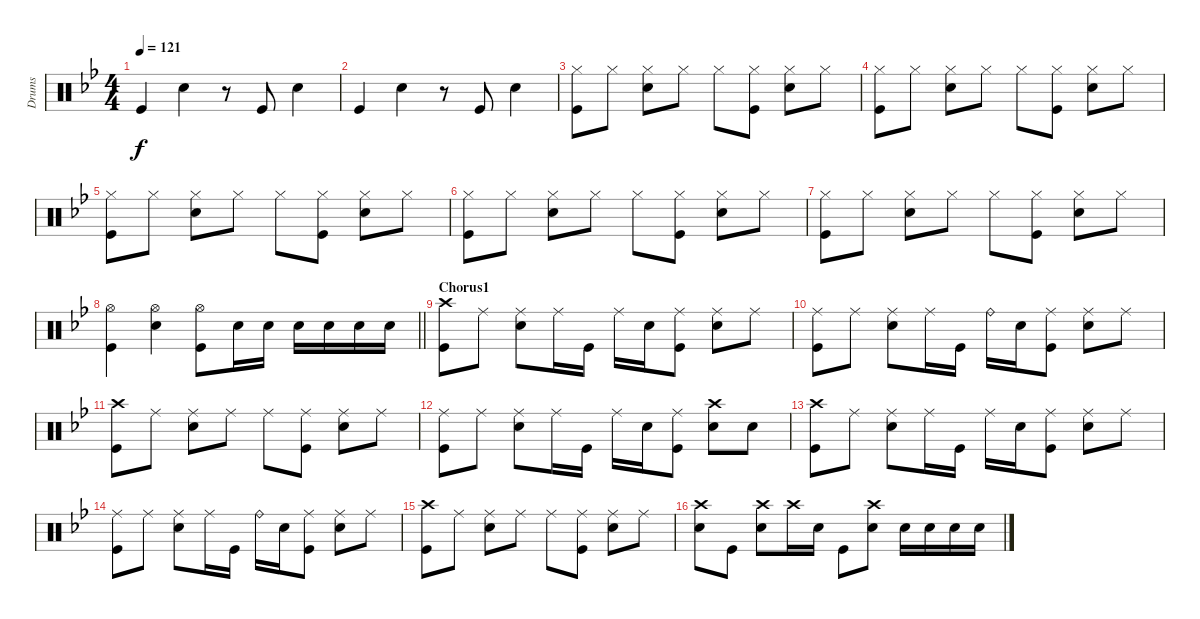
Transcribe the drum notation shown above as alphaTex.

\track ("Drums" "Drums") {instrument percussion}
\staff {score}
\articulation defaults
\ts (4 4)
\tempo 121
\clef neutral
\ks bb "Kick (hit)".4{dy f} "Snare (hit) 2".4
r.8 "Kick (hit)".8 "Snare (hit) 2".4 |
"Kick (hit)".4 "Snare (hit) 2".4 r.8 "Kick (hit)".8 "Snare (hit) 2".4 |
("Hi-Hat (closed)" "Kick (hit)").8 "Hi-Hat (closed)".8 ("Hi-Hat (closed)" "Snare (hit) 2").8 "Hi-Hat (closed)".8 "Hi-Hat (closed)".8 ("Hi-Hat (closed)" "Kick (hit)").8 ("Hi-Hat (closed)" "Snare (hit) 2").8 "Hi-Hat (closed)".8 |
("Hi-Hat (closed)" "Kick (hit)").8 "Hi-Hat (closed)".8 ("Hi-Hat (closed)" "Snare (hit) 2").8 "Hi-Hat (closed)".8 "Hi-Hat (closed)".8 ("Hi-Hat (closed)" "Kick (hit)").8 ("Hi-Hat (closed)" "Snare (hit) 2").8 "Hi-Hat (closed)".8 |
("Hi-Hat (closed)" "Kick (hit)").8 "Hi-Hat (closed)".8 ("Hi-Hat (closed)" "Snare (hit) 2").8 "Hi-Hat (closed)".8 "Hi-Hat (closed)".8 ("Hi-Hat (closed)" "Kick (hit)").8 ("Hi-Hat (closed)" "Snare (hit) 2").8 "Hi-Hat (closed)".8 |
("Hi-Hat (closed)" "Kick (hit)").8 "Hi-Hat (closed)".8 ("Hi-Hat (closed)" "Snare (hit) 2").8 "Hi-Hat (closed)".8 "Hi-Hat (closed)".8 ("Hi-Hat (closed)" "Kick (hit)").8 ("Hi-Hat (closed)" "Snare (hit) 2").8 "Hi-Hat (closed)".8 |
("Hi-Hat (closed)" "Kick (hit)").8 "Hi-Hat (closed)".8 ("Hi-Hat (closed)" "Snare (hit) 2").8 "Hi-Hat (closed)".8 "Hi-Hat (closed)".8 ("Hi-Hat (closed)" "Kick (hit)").8 ("Hi-Hat (closed)" "Snare (hit) 2").8 "Hi-Hat (closed)".8 |
\barLineRight lightlight
("Hi-Hat (open)" "Kick (hit)").4 ("Hi-Hat (open)" "Snare (hit) 2").4 ("Hi-Hat (open)" "Kick (hit)").8 "Snare (hit) 2".16 "Snare (hit) 2".16 "Snare (hit) 2".16 "Snare (hit) 2".16 "Snare (hit) 2".16 "Snare (hit) 2".16 |
\section ("" "Chorus1")
("Crash high (hit)" "Kick (hit)").8 "Ride (middle)".8 ("Ride (middle)" "Snare (hit) 2").8 "Ride (middle)".16 "Kick (hit)".16 "Ride (middle)".16 "Snare (hit) 2".16 ("Ride (middle)" "Kick (hit)").8 ("Ride (middle)" "Snare (hit) 2").8 "Ride (middle)".8 |
("Ride (middle)" "Kick (hit)").8 "Ride (middle)".8 ("Ride (middle)" "Snare (hit) 2").8 "Ride (middle)".16 "Kick (hit)".16 "Ride (bell)".16 "Snare (hit) 2".16 ("Ride (middle)" "Kick (hit)").8 ("Ride (middle)" "Snare (hit) 2").8 "Ride (middle)".8 |
("Crash high (hit)" "Kick (hit)").8 "Ride (middle)".8 ("Ride (middle)" "Snare (hit) 2").8 "Ride (middle)".8 "Ride (middle)".8 ("Kick (hit)" "Ride (middle)").8 ("Snare (hit) 2" "Ride (middle)").8 "Ride (middle)".8 |
("Ride (middle)" "Kick (hit)").8 "Ride (middle)".8 ("Ride (middle)" "Snare (hit) 2").8 "Ride (middle)".16 "Kick (hit)".16 "Ride (middle)".16 "Snare (hit) 2".16 ("Ride (middle)" "Kick (hit)").8 ("Crash high (hit)" "Snare (hit) 2").8 "Snare (hit) 2".8 |
("Crash high (hit)" "Kick (hit)").8 "Ride (middle)".8 ("Ride (middle)" "Snare (hit) 2").8 "Ride (middle)".16 "Kick (hit)".16 "Ride (middle)".16 "Snare (hit) 2".16 ("Ride (middle)" "Kick (hit)").8 ("Ride (middle)" "Snare (hit) 2").8 "Ride (middle)".8 |
("Ride (middle)" "Kick (hit)").8 "Ride (middle)".8 ("Ride (middle)" "Snare (hit) 2").8 "Ride (middle)".16 "Kick (hit)".16 "Ride (bell)".16 "Snare (hit) 2".16 ("Ride (middle)" "Kick (hit)").8 ("Ride (middle)" "Snare (hit) 2").8 "Ride (middle)".8 |
("Crash high (hit)" "Kick (hit)").8 "Ride (middle)".8 ("Ride (middle)" "Snare (hit) 2").8 "Ride (middle)".8 "Ride (middle)".8 ("Kick (hit)" "Ride (middle)").8 ("Snare (hit) 2" "Ride (middle)").8 "Ride (middle)".8 |
("Crash high (hit)" "Snare (hit) 2").8 "Kick (hit)".8 ("Crash high (hit)" "Snare (hit) 2").8 "Crash high (hit)".16 "Snare (hit) 2".16 "Kick (hit)".8 ("Snare (hit) 2" "Crash high (hit)").8 "Snare (hit) 2".16 "Snare (hit) 2".16 "Snare (hit) 2".16 "Snare (hit) 2".16
